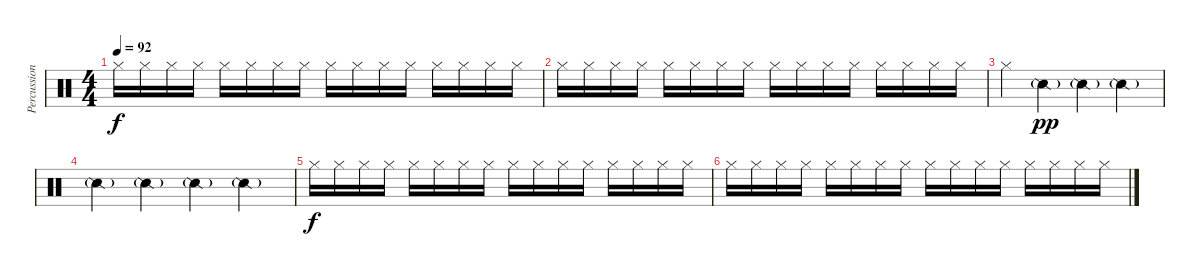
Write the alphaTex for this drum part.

\track ("Percussion" "Percussion") {instrument percussion}
\staff {score}
\articulation defaults
\ts (4 4)
\tempo 92
\clef neutral
\ks c "Hi-Hat (closed)".16{dy f} "Hi-Hat (closed)".16 "Hi-Hat (closed)".16 "Hi-Hat (closed)".16 "Hi-Hat (closed)".16 "Hi-Hat (closed)".16 "Hi-Hat (closed)".16 "Hi-Hat (closed)".16 "Hi-Hat (closed)".16 "Hi-Hat (closed)".16 "Hi-Hat (closed)".16 "Hi-Hat (closed)".16 "Hi-Hat (closed)".16 "Hi-Hat (closed)".16 "Hi-Hat (closed)".16 "Hi-Hat (closed)".16
|
"Hi-Hat (closed)".16 "Hi-Hat (closed)".16 "Hi-Hat (closed)".16 "Hi-Hat (closed)".16 "Hi-Hat (closed)".16 "Hi-Hat (closed)".16 "Hi-Hat (closed)".16 "Hi-Hat (closed)".16 "Hi-Hat (closed)".16 "Hi-Hat (closed)".16 "Hi-Hat (closed)".16 "Hi-Hat (closed)".16 "Hi-Hat (closed)".16 "Hi-Hat (closed)".16 "Hi-Hat (closed)".16 "Hi-Hat (closed)".16 |
"Hi-Hat (closed)".4 "Snare (side stick) 2"{g}.4{dy pp} "Snare (side stick) 2"{g}.4 "Snare (side stick) 2"{g}.4 |
"Snare (side stick) 2"{g}.4 "Snare (side stick) 2"{g}.4 "Snare (side stick) 2"{g}.4 "Snare (side stick) 2"{g}.4 |
"Hi-Hat (closed)".16{dy f} "Hi-Hat (closed)".16 "Hi-Hat (closed)".16 "Hi-Hat (closed)".16 "Hi-Hat (closed)".16 "Hi-Hat (closed)".16 "Hi-Hat (closed)".16 "Hi-Hat (closed)".16 "Hi-Hat (closed)".16 "Hi-Hat (closed)".16 "Hi-Hat (closed)".16 "Hi-Hat (closed)".16 "Hi-Hat (closed)".16 "Hi-Hat (closed)".16 "Hi-Hat (closed)".16 "Hi-Hat (closed)".16 |
"Hi-Hat (closed)".16 "Hi-Hat (closed)".16 "Hi-Hat (closed)".16 "Hi-Hat (closed)".16 "Hi-Hat (closed)".16 "Hi-Hat (closed)".16 "Hi-Hat (closed)".16 "Hi-Hat (closed)".16 "Hi-Hat (closed)".16 "Hi-Hat (closed)".16 "Hi-Hat (closed)".16 "Hi-Hat (closed)".16 "Hi-Hat (closed)".16 "Hi-Hat (closed)".16 "Hi-Hat (closed)".16 "Hi-Hat (closed)".16
